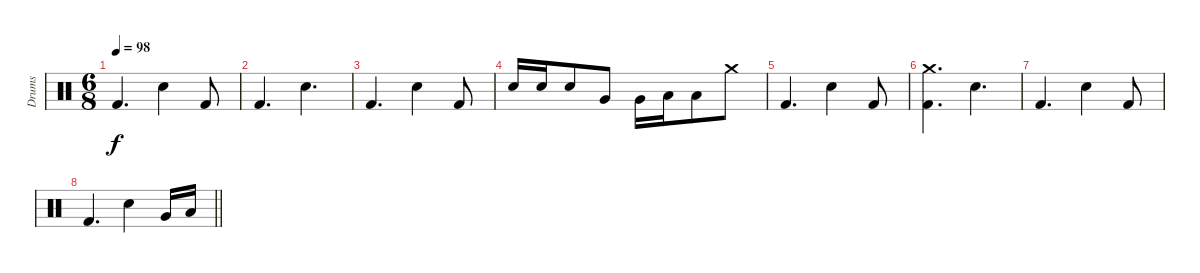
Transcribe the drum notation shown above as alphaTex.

\track ("Drums" "Drums") {instrument percussion}
\staff {score}
\articulation defaults
\ts (6 8)
\tempo 98
\clef neutral
\ks c "Kick (hit) 2".4{d dy f} "Snare (hit) 2".4 "Kick (hit) 2".8
|
"Kick (hit) 2".4{d} "Snare (hit) 2".4{d} |
"Kick (hit) 2".4{d} "Snare (hit) 2".4 "Kick (hit) 2".8 |
"Snare (hit) 2".16 "Snare (hit) 2".16 "Snare (hit) 2".8 "Very Low Tom (hit)".8 "Very Low Tom (hit)".16 "Low Tom (hit)".16 "Low Tom (hit)".8 "Crash medium (hit)".8 |
"Kick (hit) 2".4{d} "Snare (hit) 2".4 "Kick (hit) 2".8 |
("Kick (hit) 2" "Crash medium (hit)").4{d} "Snare (hit) 2".4{d} |
"Kick (hit) 2".4{d} "Snare (hit) 2".4 "Kick (hit) 2".8 |
\barLineRight lightlight "Kick (hit) 2".4{d} "Snare (hit) 2".4 "Very Low Tom (hit)".16 "Low Tom (hit)".16
